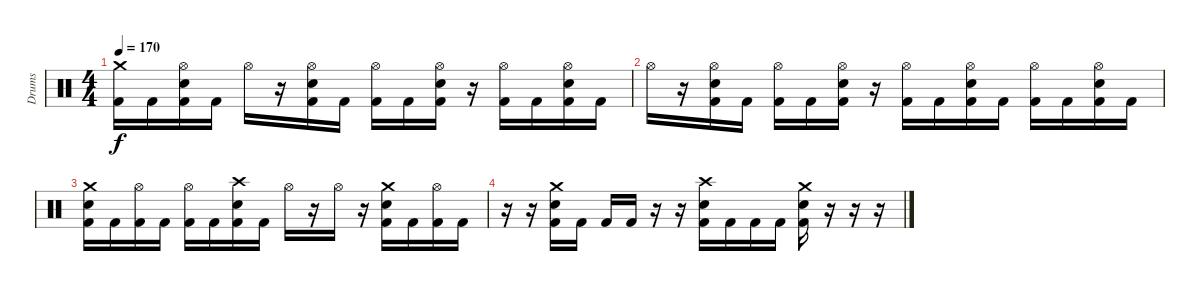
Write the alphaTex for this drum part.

\track ("Drums" "Drums") {instrument percussion}
\staff {score}
\articulation defaults
\ts (4 4)
\tempo 170
\clef neutral
\ks c
("Crash medium (hit)" "Kick (hit) 2").16{dy f} "Kick (hit) 2".16 ("Hi-Hat (open)" "Electric Snare (hit)" "Kick (hit) 2").16 "Kick (hit) 2".16 "Hi-Hat (open)".16 r.16 ("Hi-Hat (open)" "Electric Snare (hit)" "Kick (hit) 2").16 "Kick (hit) 2".16 ("Hi-Hat (open)" "Kick (hit) 2").16 "Kick (hit) 2".16 ("Hi-Hat (open)" "Electric Snare (hit)" "Kick (hit) 2").16 r.16 ("Hi-Hat (open)" "Kick (hit) 2").16 "Kick (hit) 2".16 ("Hi-Hat (open)" "Electric Snare (hit)" "Kick (hit) 2").16 "Kick (hit) 2".16 |
"Hi-Hat (open)".16 r.16 ("Hi-Hat (open)" "Electric Snare (hit)" "Kick (hit) 2").16 "Kick (hit) 2".16 ("Hi-Hat (open)" "Kick (hit) 2").16 "Kick (hit) 2".16 ("Hi-Hat (open)" "Electric Snare (hit)" "Kick (hit) 2").16 r.16 ("Hi-Hat (open)" "Kick (hit) 2").16 "Kick (hit) 2".16 ("Hi-Hat (open)" "Electric Snare (hit)" "Kick (hit) 2").16 "Kick (hit) 2".16 ("Hi-Hat (open)" "Kick (hit) 2").16 "Kick (hit) 2".16 ("Hi-Hat (open)" "Electric Snare (hit)" "Kick (hit) 2").16 "Kick (hit) 2".16 |
("Crash medium (hit)" "Electric Snare (hit)" "Kick (hit) 2").16 "Kick (hit) 2".16 ("Hi-Hat (open)" "Kick (hit) 2").16 "Kick (hit) 2".16 ("Hi-Hat (open)" "Kick (hit) 2").16 "Kick (hit) 2".16 ("Crash high (hit)" "Electric Snare (hit)" "Kick (hit) 2").16 "Kick (hit) 2".16 "Hi-Hat (open)".16 r.16 "Hi-Hat (open)".16 r.16 ("Crash medium (hit)" "Electric Snare (hit)" "Kick (hit) 2").16 "Kick (hit) 2".16 ("Hi-Hat (open)" "Kick (hit) 2").16 "Kick (hit) 2".16 |
r.16 r.16 ("Crash medium (hit)" "Electric Snare (hit)" "Kick (hit) 2").16 "Kick (hit) 2".16 "Kick (hit) 2".16 "Kick (hit) 2".16 r.16 r.16 ("Crash high (hit)" "Electric Snare (hit)" "Kick (hit) 2").16 "Kick (hit) 2".16 "Kick (hit) 2".16 "Kick (hit) 2".16 ("Crash medium (hit)" "Electric Snare (hit)" "Kick (hit) 2").16 r.16 r.16 r.16
